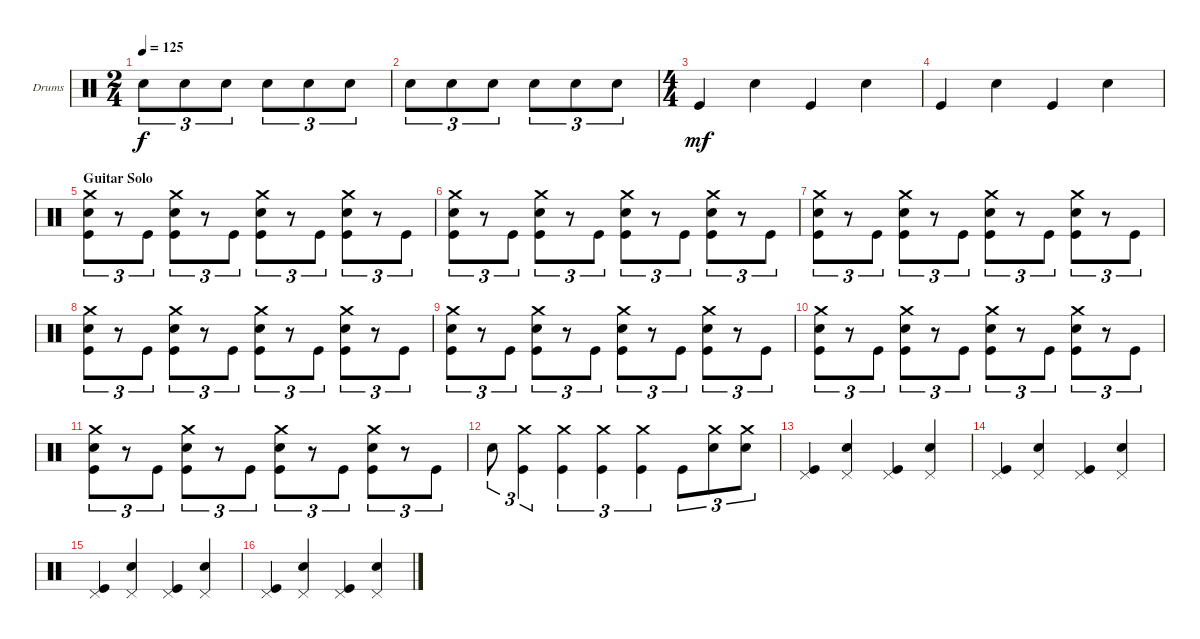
\defaultSystemsLayout 4
\bracketExtendMode groupsimilarinstruments
\firstSystemTrackNameOrientation horizontal
\otherSystemsTrackNameOrientation horizontal
\track ("Drumkit" "Drums") {instrument percussion}
\staff {score}
\articulation defaults
\ts (2 4)
\tempo 125
\clef neutral
\ks c "Snare (hit) 2".8{tu (3 2) dy f} "Snare (hit) 2".8{tu (3 2)} "Snare (hit) 2".8{tu (3 2)} "Snare (hit) 2".8{tu (3 2)} "Snare (hit) 2".8{tu (3 2)} "Snare (hit) 2".8{tu (3 2)}
|
"Snare (hit) 2".8{tu (3 2)} "Snare (hit) 2".8{tu (3 2)} "Snare (hit) 2".8{tu (3 2)} "Snare (hit) 2".8{tu (3 2)} "Snare (hit) 2".8{tu (3 2)} "Snare (hit) 2".8{tu (3 2)} |
\ts (4 4)
"Kick (hit)".4{dy mf} "Snare (hit) 2".4 "Kick (hit)".4 "Snare (hit) 2".4 |
"Kick (hit)".4 "Snare (hit) 2".4 "Kick (hit)".4 "Snare (hit) 2".4 |
\section ("" "Guitar Solo")
("Kick (hit)" "Crash medium (hit)" "Snare (hit) 2").8{tu (3 2)} r.8{tu (3 2)} "Kick (hit)".8{tu (3 2)} ("Kick (hit)" "Snare (hit) 2" "Crash medium (hit)").8{tu (3 2)} r.8{tu (3 2)} "Kick (hit)".8{tu (3 2)} ("Kick (hit)" "Snare (hit) 2" "Crash medium (hit)").8{tu (3 2)} r.8{tu (3 2)} "Kick (hit)".8{tu (3 2)} ("Kick (hit)" "Crash medium (hit)" "Snare (hit) 2").8{tu (3 2)} r.8{tu (3 2)} "Kick (hit)".8{tu (3 2)} |
("Kick (hit)" "Crash medium (hit)" "Snare (hit) 2").8{tu (3 2)} r.8{tu (3 2)} "Kick (hit)".8{tu (3 2)} ("Kick (hit)" "Snare (hit) 2" "Crash medium (hit)").8{tu (3 2)} r.8{tu (3 2)} "Kick (hit)".8{tu (3 2)} ("Kick (hit)" "Snare (hit) 2" "Crash medium (hit)").8{tu (3 2)} r.8{tu (3 2)} "Kick (hit)".8{tu (3 2)} ("Kick (hit)" "Crash medium (hit)" "Snare (hit) 2").8{tu (3 2)} r.8{tu (3 2)} "Kick (hit)".8{tu (3 2)} |
("Kick (hit)" "Crash medium (hit)" "Snare (hit) 2").8{tu (3 2)} r.8{tu (3 2)} "Kick (hit)".8{tu (3 2)} ("Kick (hit)" "Snare (hit) 2" "Crash medium (hit)").8{tu (3 2)} r.8{tu (3 2)} "Kick (hit)".8{tu (3 2)} ("Kick (hit)" "Snare (hit) 2" "Crash medium (hit)").8{tu (3 2)} r.8{tu (3 2)} "Kick (hit)".8{tu (3 2)} ("Kick (hit)" "Crash medium (hit)" "Snare (hit) 2").8{tu (3 2)} r.8{tu (3 2)} "Kick (hit)".8{tu (3 2)} |
("Kick (hit)" "Crash medium (hit)" "Snare (hit) 2").8{tu (3 2)} r.8{tu (3 2)} "Kick (hit)".8{tu (3 2)} ("Kick (hit)" "Snare (hit) 2" "Crash medium (hit)").8{tu (3 2)} r.8{tu (3 2)} "Kick (hit)".8{tu (3 2)} ("Kick (hit)" "Snare (hit) 2" "Crash medium (hit)").8{tu (3 2)} r.8{tu (3 2)} "Kick (hit)".8{tu (3 2)} ("Kick (hit)" "Crash medium (hit)" "Snare (hit) 2").8{tu (3 2)} r.8{tu (3 2)} "Kick (hit)".8{tu (3 2)} |
("Kick (hit)" "Crash medium (hit)" "Snare (hit) 2").8{tu (3 2)} r.8{tu (3 2)} "Kick (hit)".8{tu (3 2)} ("Kick (hit)" "Snare (hit) 2" "Crash medium (hit)").8{tu (3 2)} r.8{tu (3 2)} "Kick (hit)".8{tu (3 2)} ("Kick (hit)" "Snare (hit) 2" "Crash medium (hit)").8{tu (3 2)} r.8{tu (3 2)} "Kick (hit)".8{tu (3 2)} ("Kick (hit)" "Crash medium (hit)" "Snare (hit) 2").8{tu (3 2)} r.8{tu (3 2)} "Kick (hit)".8{tu (3 2)} |
("Kick (hit)" "Crash medium (hit)" "Snare (hit) 2").8{tu (3 2)} r.8{tu (3 2)} "Kick (hit)".8{tu (3 2)} ("Kick (hit)" "Snare (hit) 2" "Crash medium (hit)").8{tu (3 2)} r.8{tu (3 2)} "Kick (hit)".8{tu (3 2)} ("Kick (hit)" "Snare (hit) 2" "Crash medium (hit)").8{tu (3 2)} r.8{tu (3 2)} "Kick (hit)".8{tu (3 2)} ("Kick (hit)" "Crash medium (hit)" "Snare (hit) 2").8{tu (3 2)} r.8{tu (3 2)} "Kick (hit)".8{tu (3 2)} |
("Kick (hit)" "Crash medium (hit)" "Snare (hit) 2").8{tu (3 2)} r.8{tu (3 2)} "Kick (hit)".8{tu (3 2)} ("Kick (hit)" "Snare (hit) 2" "Crash medium (hit)").8{tu (3 2)} r.8{tu (3 2)} "Kick (hit)".8{tu (3 2)} ("Kick (hit)" "Snare (hit) 2" "Crash medium (hit)").8{tu (3 2)} r.8{tu (3 2)} "Kick (hit)".8{tu (3 2)} ("Kick (hit)" "Crash medium (hit)" "Snare (hit) 2").8{tu (3 2)} r.8{tu (3 2)} "Kick (hit)".8{tu (3 2)} |
"Snare (hit) 2".8{tu (3 2)} ("Kick (hit)" "Crash medium (hit)").4{tu (3 2)} ("Kick (hit)" "Crash medium (hit)").4{tu (3 2)} ("Kick (hit)" "Crash medium (hit)").4{tu (3 2)} ("Kick (hit)" "Crash medium (hit)").4{tu (3 2)} "Kick (hit)".8{tu (3 2)} ("Snare (hit) 2" "Crash medium (hit)").8{tu (3 2)} ("Snare (hit) 2" "Crash medium (hit)").8{tu (3 2)} |
("Kick (hit)" "Pedal Hi-Hat (hit)").4 ("Snare (hit) 2" "Pedal Hi-Hat (hit)").4 ("Kick (hit)" "Pedal Hi-Hat (hit)").4 ("Snare (hit) 2" "Pedal Hi-Hat (hit)").4 |
("Kick (hit)" "Pedal Hi-Hat (hit)").4 ("Snare (hit) 2" "Pedal Hi-Hat (hit)").4 ("Kick (hit)" "Pedal Hi-Hat (hit)").4 ("Snare (hit) 2" "Pedal Hi-Hat (hit)").4 |
("Kick (hit)" "Pedal Hi-Hat (hit)").4 ("Snare (hit) 2" "Pedal Hi-Hat (hit)").4 ("Kick (hit)" "Pedal Hi-Hat (hit)").4 ("Snare (hit) 2" "Pedal Hi-Hat (hit)").4 |
("Kick (hit)" "Pedal Hi-Hat (hit)").4 ("Snare (hit) 2" "Pedal Hi-Hat (hit)").4 ("Kick (hit)" "Pedal Hi-Hat (hit)").4 ("Snare (hit) 2" "Pedal Hi-Hat (hit)").4
